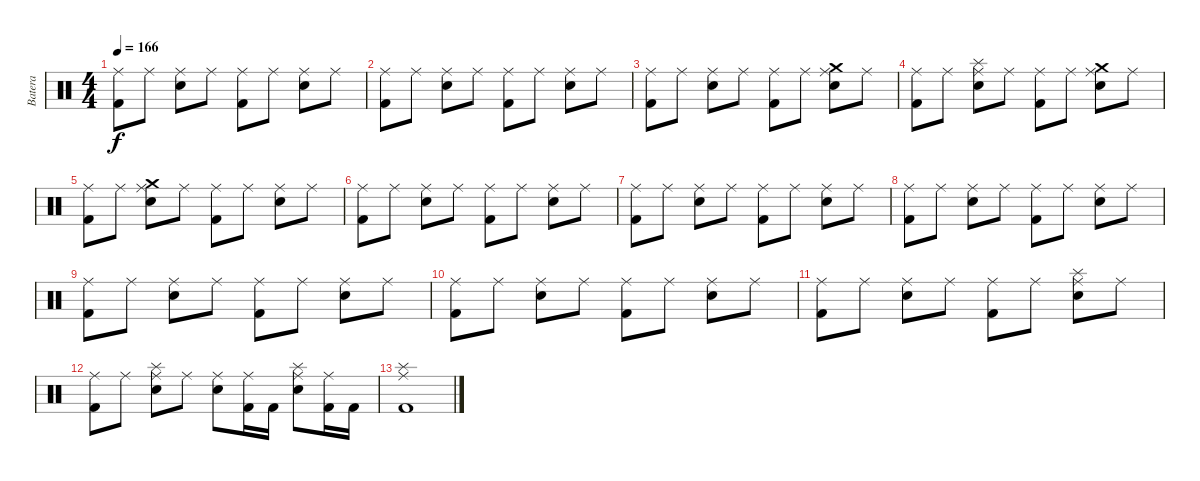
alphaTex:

\track ("Batera" "Batera") {instrument percussion}
\staff {score}
\articulation defaults
\ts (4 4)
\tempo 166
\clef neutral
\ks c
("Ride (middle)" "Kick (hit) 2").8{dy f} "Ride (middle)".8 ("Ride (middle)" "Snare (hit) 2").8 "Ride (middle)".8 ("Ride (middle)" "Kick (hit) 2").8 "Ride (middle)".8 ("Ride (middle)" "Snare (hit) 2").8 "Ride (middle)".8 |
("Ride (middle)" "Kick (hit) 2").8 "Ride (middle)".8 ("Ride (middle)" "Snare (hit) 2").8 "Ride (middle)".8 ("Ride (middle)" "Kick (hit) 2").8 "Ride (middle)".8 ("Ride (middle)" "Snare (hit) 2").8 "Ride (middle)".8 |
("Ride (middle)" "Kick (hit) 2").8 "Ride (middle)".8 ("Ride (middle)" "Snare (hit) 2").8 "Ride (middle)".8 ("Ride (middle)" "Kick (hit) 2").8 "Ride (middle)".8 ("Ride (middle)" "Crash medium (hit)" "Snare (hit) 2").8 "Ride (middle)".8 |
("Ride (middle)" "Kick (hit) 2").8 "Ride (middle)".8 ("Ride (middle)" "Splash (hit)" "Snare (hit) 2").8 "Ride (middle)".8 ("Ride (middle)" "Kick (hit) 2").8 "Ride (middle)".8 ("Ride (middle)" "Crash medium (hit)" "Snare (hit) 2").8 "Ride (middle)".8 |
("Ride (middle)" "Kick (hit) 2").8 "Ride (middle)".8 ("Ride (middle)" "Crash medium (hit)" "Snare (hit) 2").8 "Ride (middle)".8 ("Ride (middle)" "Kick (hit) 2").8 "Ride (middle)".8 ("Ride (middle)" "Snare (hit) 2").8 "Ride (middle)".8 |
("Ride (middle)" "Kick (hit) 2").8 "Ride (middle)".8 ("Ride (middle)" "Snare (hit) 2").8 "Ride (middle)".8 ("Ride (middle)" "Kick (hit) 2").8 "Ride (middle)".8 ("Ride (middle)" "Snare (hit) 2").8 "Ride (middle)".8 |
("Ride (middle)" "Kick (hit) 2").8 "Ride (middle)".8 ("Ride (middle)" "Snare (hit) 2").8 "Ride (middle)".8 ("Ride (middle)" "Kick (hit) 2").8 "Ride (middle)".8 ("Ride (middle)" "Snare (hit) 2").8 "Ride (middle)".8 |
("Ride (middle)" "Kick (hit) 2").8 "Ride (middle)".8 ("Ride (middle)" "Snare (hit) 2").8 "Ride (middle)".8 ("Ride (middle)" "Kick (hit) 2").8 "Ride (middle)".8 ("Ride (middle)" "Snare (hit) 2").8 "Ride (middle)".8 |
("Ride (middle)" "Kick (hit) 2").8 "Ride (middle)".8 ("Ride (middle)" "Snare (hit) 2").8 "Ride (middle)".8 ("Ride (middle)" "Kick (hit) 2").8 "Ride (middle)".8 ("Ride (middle)" "Snare (hit) 2").8 "Ride (middle)".8 |
("Ride (middle)" "Kick (hit) 2").8 "Ride (middle)".8 ("Ride (middle)" "Snare (hit) 2").8 "Ride (middle)".8 ("Ride (middle)" "Kick (hit) 2").8 "Ride (middle)".8 ("Ride (middle)" "Snare (hit) 2").8 "Ride (middle)".8 |
("Ride (middle)" "Kick (hit) 2").8 "Ride (middle)".8 ("Ride (middle)" "Snare (hit) 2").8 "Ride (middle)".8 ("Ride (middle)" "Kick (hit) 2").8 "Ride (middle)".8 ("Ride (middle)" "Splash (hit)" "Snare (hit) 2").8 "Ride (middle)".8 |
("Ride (middle)" "Kick (hit) 2").8 "Ride (middle)".8 ("Ride (middle)" "Splash (hit)" "Snare (hit) 2").8 "Ride (middle)".8 ("Ride (middle)" "Snare (hit) 2").8 ("Ride (middle)" "Kick (hit) 2").16 "Kick (hit) 2".16 ("Ride (middle)" "Splash (hit)" "Snare (hit) 2").8 ("Ride (middle)" "Kick (hit) 2").16 "Kick (hit) 2".16 |
("Ride (middle)" "Kick (hit) 2" "Splash (hit)").1
